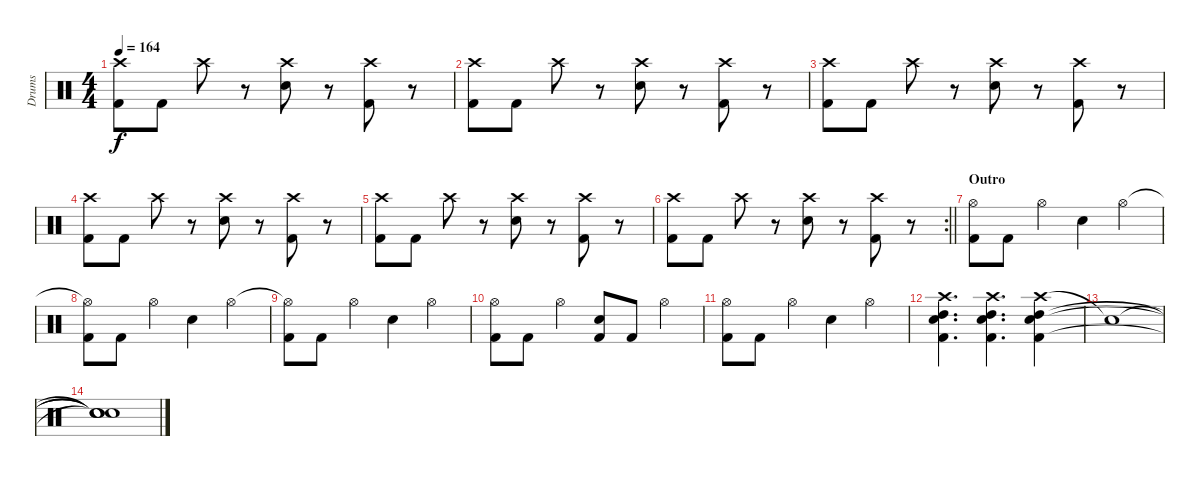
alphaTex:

\track ("Drums" "Drums") {instrument percussion}
\staff {score}
\articulation defaults
\ts (4 4)
\tempo 164
\clef neutral
\ks c
("Crash high (hit)" "Kick (hit) 2").8{dy f} "Kick (hit) 2".8 "Crash high (hit)".8 r.8 ("Crash high (hit)" "Electric Snare (hit)").8 r.8 ("Crash high (hit)" "Kick (hit) 2").8 r.8 |
("Crash high (hit)" "Kick (hit) 2").8 "Kick (hit) 2".8 "Crash high (hit)".8 r.8 ("Crash high (hit)" "Electric Snare (hit)").8 r.8 ("Crash high (hit)" "Kick (hit) 2").8 r.8 |
("Crash high (hit)" "Kick (hit) 2").8 "Kick (hit) 2".8 "Crash high (hit)".8 r.8 ("Crash high (hit)" "Electric Snare (hit)").8 r.8 ("Crash high (hit)" "Kick (hit) 2").8 r.8 |
("Crash high (hit)" "Kick (hit) 2").8 "Kick (hit) 2".8 "Crash high (hit)".8 r.8 ("Crash high (hit)" "Electric Snare (hit)").8 r.8 ("Crash high (hit)" "Kick (hit) 2").8 r.8 |
("Crash high (hit)" "Kick (hit) 2").8 "Kick (hit) 2".8 "Crash high (hit)".8 r.8 ("Crash high (hit)" "Electric Snare (hit)").8 r.8 ("Crash high (hit)" "Kick (hit) 2").8 r.8 |
\rc 2
\barLineRight lightlight
("Crash high (hit)" "Kick (hit) 2").8 "Kick (hit) 2".8 "Crash high (hit)".8 r.8 ("Crash high (hit)" "Electric Snare (hit)").8 r.8 ("Crash high (hit)" "Kick (hit) 2").8 r.8 |
\section ("" "Outro")
("Hi-Hat (open)" "Kick (hit) 2").8 "Kick (hit) 2".8 "Hi-Hat (open)".4 "Snare (hit) 2".4 "Hi-Hat (open)".4 |
("Hi-Hat (open)"{t} "Kick (hit) 2").8 "Kick (hit) 2".8 "Hi-Hat (open)".4 "Snare (hit) 2".4 "Hi-Hat (open)".4 |
("Hi-Hat (open)"{t} "Kick (hit) 2").8 "Kick (hit) 2".8 "Hi-Hat (open)".4 "Snare (hit) 2".4 "Hi-Hat (open)".4 |
("Hi-Hat (open)" "Kick (hit) 2").8 "Kick (hit) 2".8 "Hi-Hat (open)".4 ("Snare (hit) 2" "Kick (hit) 2").8 "Kick (hit) 2".8 "Hi-Hat (open)".4 |
("Hi-Hat (open)" "Kick (hit) 2").8 "Kick (hit) 2".8 "Hi-Hat (open)".4 "Snare (hit) 2".4 "Hi-Hat (open)".4 |
("Crash high (hit)" "High Tom (hit)" "Electric Snare (hit)" "Kick (hit) 2").4{d} ("Crash high (hit)" "High Tom (hit)" "Electric Snare (hit)" "Kick (hit) 2").4{d} ("Crash high (hit)" "High Tom (hit)" "Electric Snare (hit)" "Kick (hit) 2").4 |
"Snare (hit)"{t}.1 |
("Snare (hit)"{t} "Snare (hit)"{t} "Snare (hit)"{t} "Snare (hit)"{t}).1
